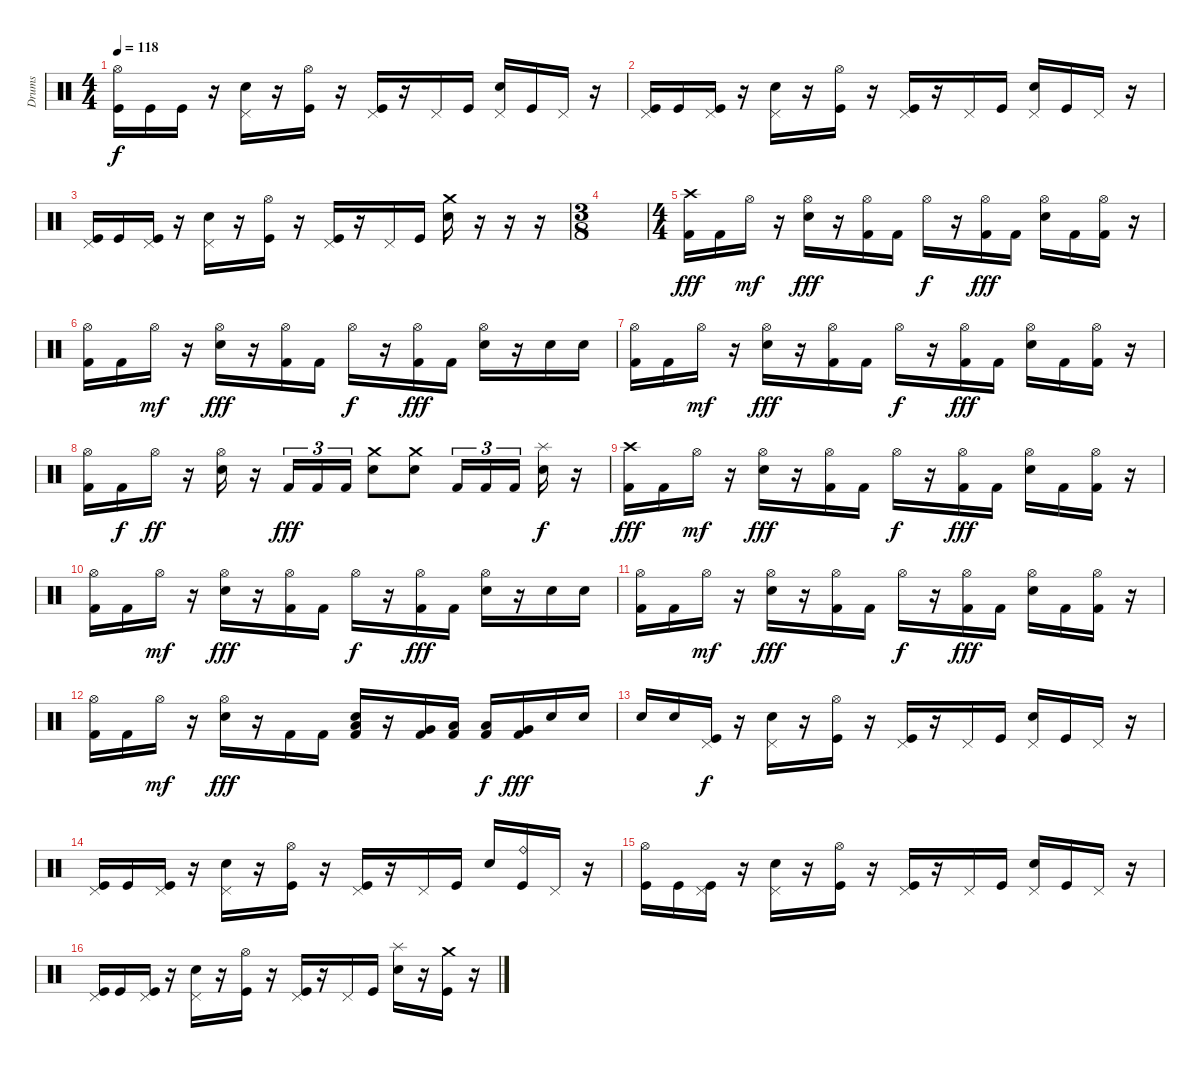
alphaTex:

\track ("Drums" "Drums") {instrument percussion}
\staff {score}
\articulation defaults
\ts (4 4)
\tempo 118
\clef neutral
\ks c
("Hi-Hat (open)" "Kick (hit)").16{dy f} "Kick (hit)".16 "Kick (hit)".16 r.16 ("Pedal Hi-Hat (hit)" "Electric Snare (hit)").16 r.16 ("Hi-Hat (open)" "Kick (hit)").16 r.16 ("Pedal Hi-Hat (hit)" "Kick (hit)").16 r.16 "Pedal Hi-Hat (hit)".16 "Kick (hit)".16 ("Pedal Hi-Hat (hit)" "Electric Snare (hit)").16 "Kick (hit)".16 "Pedal Hi-Hat (hit)".16 r.16 |
("Pedal Hi-Hat (hit)" "Kick (hit)").16 "Kick (hit)".16 ("Pedal Hi-Hat (hit)" "Kick (hit)").16 r.16 ("Pedal Hi-Hat (hit)" "Electric Snare (hit)").16 r.16 ("Hi-Hat (open)" "Kick (hit)").16 r.16 ("Pedal Hi-Hat (hit)" "Kick (hit)").16 r.16 "Pedal Hi-Hat (hit)".16 "Kick (hit)".16 ("Pedal Hi-Hat (hit)" "Electric Snare (hit)").16 "Kick (hit)".16 "Pedal Hi-Hat (hit)".16 r.16 |
("Pedal Hi-Hat (hit)" "Kick (hit)").16 "Kick (hit)".16 ("Pedal Hi-Hat (hit)" "Kick (hit)").16 r.16 ("Pedal Hi-Hat (hit)" "Electric Snare (hit)").16 r.16 ("Hi-Hat (open)" "Kick (hit)").16 r.16 ("Pedal Hi-Hat (hit)" "Kick (hit)").16 r.16 "Pedal Hi-Hat (hit)".16 "Kick (hit)".16 ("Crash medium (hit)" "Electric Snare (hit)").16 r.16 r.16 r.16 |
\ts (3 8)
|
\ts (4 4)
("Crash high (hit)" "Kick (hit) 2").16{dy fff} "Kick (hit) 2".16 "Hi-Hat (open)".16{dy mf} r.16 ("Hi-Hat (open)" "Electric Snare (hit)").16{dy fff} r.16 ("Hi-Hat (open)" "Kick (hit) 2").16 "Kick (hit) 2".16 "Hi-Hat (open)".16{dy f} r.16 ("Hi-Hat (open)" "Kick (hit) 2").16{dy fff} "Kick (hit) 2".16 ("Hi-Hat (open)" "Electric Snare (hit)").16 "Kick (hit) 2".16 ("Hi-Hat (open)" "Kick (hit) 2").16 r.16 |
("Hi-Hat (open)" "Kick (hit) 2").16 "Kick (hit) 2".16 "Hi-Hat (open)".16{dy mf} r.16 ("Hi-Hat (open)" "Electric Snare (hit)").16{dy fff} r.16 ("Hi-Hat (open)" "Kick (hit) 2").16 "Kick (hit) 2".16 "Hi-Hat (open)".16{dy f} r.16 ("Hi-Hat (open)" "Kick (hit) 2").16{dy fff} "Kick (hit) 2".16 ("Hi-Hat (open)" "Electric Snare (hit)").16 r.16 "Electric Snare (hit)".16 "Electric Snare (hit)".16 |
("Hi-Hat (open)" "Kick (hit) 2").16 "Kick (hit) 2".16 "Hi-Hat (open)".16{dy mf} r.16 ("Hi-Hat (open)" "Electric Snare (hit)").16{dy fff} r.16 ("Hi-Hat (open)" "Kick (hit) 2").16 "Kick (hit) 2".16 "Hi-Hat (open)".16{dy f} r.16 ("Hi-Hat (open)" "Kick (hit) 2").16{dy fff} "Kick (hit) 2".16 ("Hi-Hat (open)" "Electric Snare (hit)").16 "Kick (hit) 2".16 ("Hi-Hat (open)" "Kick (hit) 2").16 r.16 |
("Hi-Hat (open)" "Kick (hit) 2").16 "Kick (hit) 2".16{dy f} "Hi-Hat (open)".16{dy ff} r.16 ("Hi-Hat (open)" "Electric Snare (hit)").16 r.16 "Kick (hit) 2".16{tu (3 2) dy fff} "Kick (hit) 2".16{tu (3 2)} "Kick (hit) 2".16{tu (3 2)} ("Crash medium (hit)" "Electric Snare (hit)").8 ("Crash medium (hit)" "Electric Snare (hit)").8 "Kick (hit) 2".16{tu (3 2)} "Kick (hit) 2".16{tu (3 2)} "Kick (hit) 2".16{tu (3 2)} ("Splash (hit)" "Electric Snare (hit)").16{dy f} r.16 |
("Crash high (hit)" "Kick (hit) 2").16{dy fff} "Kick (hit) 2".16 "Hi-Hat (open)".16{dy mf} r.16 ("Hi-Hat (open)" "Electric Snare (hit)").16{dy fff} r.16 ("Hi-Hat (open)" "Kick (hit) 2").16 "Kick (hit) 2".16 "Hi-Hat (open)".16{dy f} r.16 ("Hi-Hat (open)" "Kick (hit) 2").16{dy fff} "Kick (hit) 2".16 ("Hi-Hat (open)" "Electric Snare (hit)").16 "Kick (hit) 2".16 ("Hi-Hat (open)" "Kick (hit) 2").16 r.16 |
("Hi-Hat (open)" "Kick (hit) 2").16 "Kick (hit) 2".16 "Hi-Hat (open)".16{dy mf} r.16 ("Hi-Hat (open)" "Electric Snare (hit)").16{dy fff} r.16 ("Hi-Hat (open)" "Kick (hit) 2").16 "Kick (hit) 2".16 "Hi-Hat (open)".16{dy f} r.16 ("Hi-Hat (open)" "Kick (hit) 2").16{dy fff} "Kick (hit) 2".16 ("Hi-Hat (open)" "Electric Snare (hit)").16 r.16 "Electric Snare (hit)".16 "Electric Snare (hit)".16 |
("Hi-Hat (open)" "Kick (hit) 2").16 "Kick (hit) 2".16 "Hi-Hat (open)".16{dy mf} r.16 ("Hi-Hat (open)" "Electric Snare (hit)").16{dy fff} r.16 ("Hi-Hat (open)" "Kick (hit) 2").16 "Kick (hit) 2".16 "Hi-Hat (open)".16{dy f} r.16 ("Hi-Hat (open)" "Kick (hit) 2").16{dy fff} "Kick (hit) 2".16 ("Hi-Hat (open)" "Electric Snare (hit)").16 "Kick (hit) 2".16 ("Hi-Hat (open)" "Kick (hit) 2").16 r.16 |
("Hi-Hat (open)" "Kick (hit) 2").16 "Kick (hit) 2".16 "Hi-Hat (open)".16{dy mf} r.16 ("Hi-Hat (open)" "Electric Snare (hit)").16{dy fff} r.16 "Kick (hit) 2".16 "Kick (hit) 2".16 ("Low Floor Tom (hit)" "Electric Snare (hit)" "Kick (hit) 2").16 r.16 ("Very Low Tom (hit)" "Kick (hit) 2").16 ("Low Floor Tom (hit)" "Kick (hit) 2").16 ("Low Floor Tom (hit)" "Kick (hit) 2").16{dy f} ("Very Low Tom (hit)" "Kick (hit) 2").16{dy fff} "Electric Snare (hit)".16 "Electric Snare (hit)".16 |
"Electric Snare (hit)".16 "Electric Snare (hit)".16 ("Pedal Hi-Hat (hit)" "Kick (hit)").16{dy f} r.16 ("Pedal Hi-Hat (hit)" "Electric Snare (hit)").16 r.16 ("Hi-Hat (open)" "Kick (hit)").16 r.16 ("Pedal Hi-Hat (hit)" "Kick (hit)").16 r.16 "Pedal Hi-Hat (hit)".16 "Kick (hit)".16 ("Pedal Hi-Hat (hit)" "Electric Snare (hit)").16 "Kick (hit)".16 "Pedal Hi-Hat (hit)".16 r.16 |
("Pedal Hi-Hat (hit)" "Kick (hit)").16 "Kick (hit)".16 ("Pedal Hi-Hat (hit)" "Kick (hit)").16 r.16 ("Pedal Hi-Hat (hit)" "Electric Snare (hit)").16 r.16 ("Hi-Hat (open)" "Kick (hit)").16 r.16 ("Pedal Hi-Hat (hit)" "Kick (hit)").16 r.16 "Pedal Hi-Hat (hit)".16 "Kick (hit)".16 "Electric Snare (hit)".16 ("Ride (bell)" "Kick (hit)").16 "Pedal Hi-Hat (hit)".16 r.16 |
("Hi-Hat (open)" "Kick (hit)").16 "Kick (hit)".16 ("Pedal Hi-Hat (hit)" "Kick (hit)").16 r.16 ("Pedal Hi-Hat (hit)" "Electric Snare (hit)").16 r.16 ("Hi-Hat (open)" "Kick (hit)").16 r.16 ("Pedal Hi-Hat (hit)" "Kick (hit)").16 r.16 "Pedal Hi-Hat (hit)".16 "Kick (hit)".16 ("Pedal Hi-Hat (hit)" "Electric Snare (hit)").16 "Kick (hit)".16 "Pedal Hi-Hat (hit)".16 r.16 |
("Pedal Hi-Hat (hit)" "Kick (hit)").16 "Kick (hit)".16 ("Pedal Hi-Hat (hit)" "Kick (hit)").16 r.16 ("Pedal Hi-Hat (hit)" "Electric Snare (hit)").16 r.16 ("Hi-Hat (open)" "Kick (hit)").16 r.16 ("Pedal Hi-Hat (hit)" "Kick (hit)").16 r.16 "Pedal Hi-Hat (hit)".16 "Kick (hit)".16 ("Splash (hit)" "Electric Snare (hit)").16 r.16 ("Crash medium (hit)" "Kick (hit)").16 r.16
